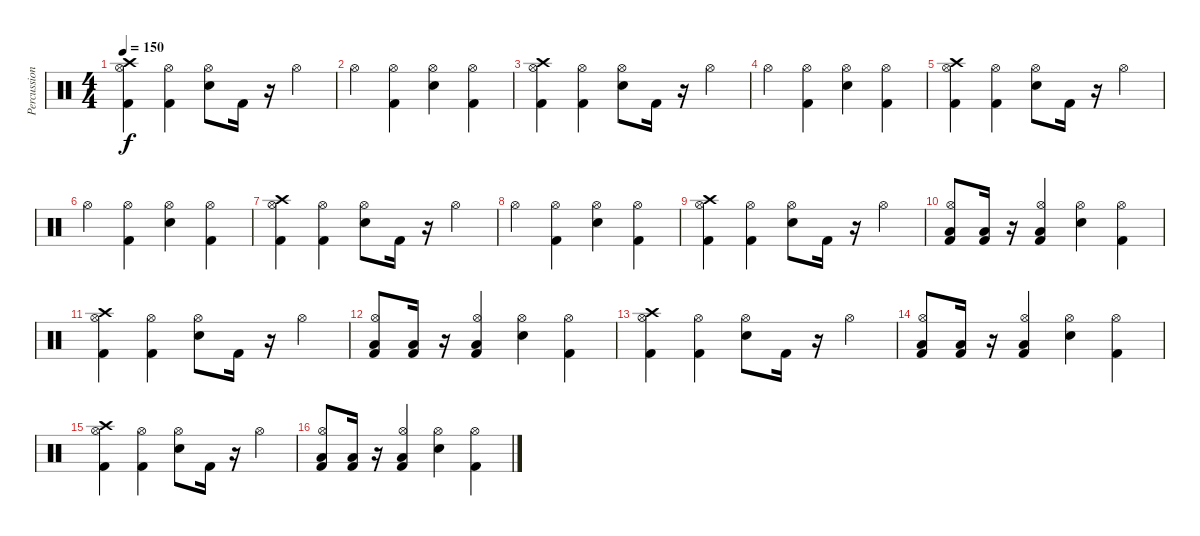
\track ("Percussion" "Percussion") {instrument percussion}
\staff {score}
\articulation defaults
\ts (4 4)
\tempo 150
\clef neutral
\ks c
("Kick (hit) 2" "Hi-Hat (open)" "Crash high (hit)").4{dy f} ("Kick (hit) 2" "Hi-Hat (open)").4 ("Electric Snare (hit)" "Hi-Hat (open)").8 "Kick (hit) 2".16 r.16 "Hi-Hat (open)".4 |
"Hi-Hat (open)".4 ("Kick (hit) 2" "Hi-Hat (open)").4 ("Electric Snare (hit)" "Hi-Hat (open)").4 ("Kick (hit) 2" "Hi-Hat (open)").4 |
("Kick (hit) 2" "Hi-Hat (open)" "Crash high (hit)").4 ("Kick (hit) 2" "Hi-Hat (open)").4 ("Electric Snare (hit)" "Hi-Hat (open)").8 "Kick (hit) 2".16 r.16 "Hi-Hat (open)".4 |
"Hi-Hat (open)".4 ("Kick (hit) 2" "Hi-Hat (open)").4 ("Electric Snare (hit)" "Hi-Hat (open)").4 ("Kick (hit) 2" "Hi-Hat (open)").4 |
("Kick (hit) 2" "Hi-Hat (open)" "Crash high (hit)").4 ("Kick (hit) 2" "Hi-Hat (open)").4 ("Electric Snare (hit)" "Hi-Hat (open)").8 "Kick (hit) 2".16 r.16 "Hi-Hat (open)".4 |
"Hi-Hat (open)".4 ("Kick (hit) 2" "Hi-Hat (open)").4 ("Electric Snare (hit)" "Hi-Hat (open)").4 ("Kick (hit) 2" "Hi-Hat (open)").4 |
("Kick (hit) 2" "Hi-Hat (open)" "Crash high (hit)").4 ("Kick (hit) 2" "Hi-Hat (open)").4 ("Electric Snare (hit)" "Hi-Hat (open)").8 "Kick (hit) 2".16 r.16 "Hi-Hat (open)".4 |
"Hi-Hat (open)".4 ("Kick (hit) 2" "Hi-Hat (open)").4 ("Electric Snare (hit)" "Hi-Hat (open)").4 ("Kick (hit) 2" "Hi-Hat (open)").4 |
("Kick (hit) 2" "Hi-Hat (open)" "Crash high (hit)").4 ("Kick (hit) 2" "Hi-Hat (open)").4 ("Electric Snare (hit)" "Hi-Hat (open)").8 "Kick (hit) 2".16 r.16 "Hi-Hat (open)".4 |
("Kick (hit) 2" "Low Floor Tom (hit)" "Hi-Hat (open)").8 ("Kick (hit) 2" "Low Floor Tom (hit)").16 r.16 ("Kick (hit) 2" "Low Floor Tom (hit)" "Hi-Hat (open)").4 ("Electric Snare (hit)" "Hi-Hat (open)").4 ("Kick (hit) 2" "Hi-Hat (open)").4 |
("Kick (hit) 2" "Hi-Hat (open)" "Crash high (hit)").4 ("Kick (hit) 2" "Hi-Hat (open)").4 ("Electric Snare (hit)" "Hi-Hat (open)").8 "Kick (hit) 2".16 r.16 "Hi-Hat (open)".4 |
("Kick (hit) 2" "Low Floor Tom (hit)" "Hi-Hat (open)").8 ("Kick (hit) 2" "Low Floor Tom (hit)").16 r.16 ("Kick (hit) 2" "Low Floor Tom (hit)" "Hi-Hat (open)").4 ("Electric Snare (hit)" "Hi-Hat (open)").4 ("Kick (hit) 2" "Hi-Hat (open)").4 |
("Kick (hit) 2" "Hi-Hat (open)" "Crash high (hit)").4 ("Kick (hit) 2" "Hi-Hat (open)").4 ("Electric Snare (hit)" "Hi-Hat (open)").8 "Kick (hit) 2".16 r.16 "Hi-Hat (open)".4 |
("Kick (hit) 2" "Low Floor Tom (hit)" "Hi-Hat (open)").8 ("Kick (hit) 2" "Low Floor Tom (hit)").16 r.16 ("Kick (hit) 2" "Low Floor Tom (hit)" "Hi-Hat (open)").4 ("Electric Snare (hit)" "Hi-Hat (open)").4 ("Kick (hit) 2" "Hi-Hat (open)").4 |
("Kick (hit) 2" "Hi-Hat (open)" "Crash high (hit)").4 ("Kick (hit) 2" "Hi-Hat (open)").4 ("Electric Snare (hit)" "Hi-Hat (open)").8 "Kick (hit) 2".16 r.16 "Hi-Hat (open)".4 |
("Kick (hit) 2" "Low Floor Tom (hit)" "Hi-Hat (open)").8 ("Kick (hit) 2" "Low Floor Tom (hit)").16 r.16 ("Kick (hit) 2" "Low Floor Tom (hit)" "Hi-Hat (open)").4 ("Electric Snare (hit)" "Hi-Hat (open)").4 ("Kick (hit) 2" "Hi-Hat (open)").4
